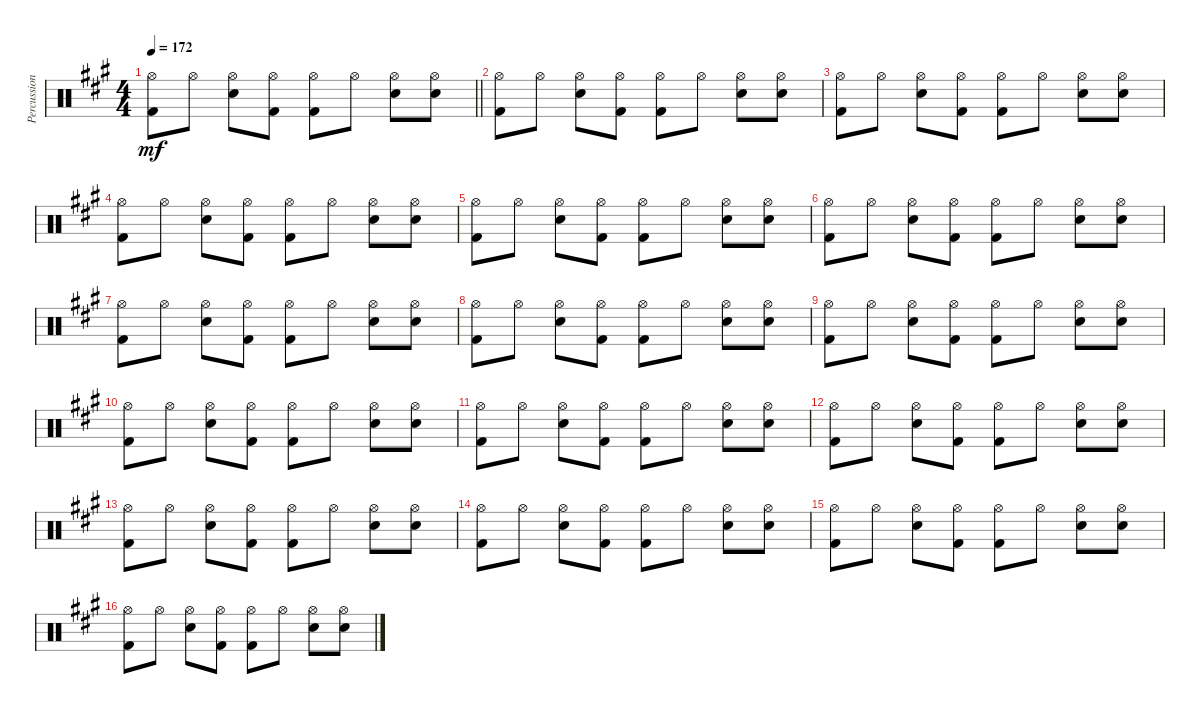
\track ("Percussion" "Percussion") {instrument percussion}
\staff {score}
\articulation defaults
\ts (4 4)
\tempo 172
\clef neutral
\barLineRight lightlight
\ks a
("Hi-Hat (open)" "Kick (hit) 2").8{dy mf} "Hi-Hat (open)".8 ("Hi-Hat (open)" "Snare (hit) 2").8 ("Hi-Hat (open)" "Kick (hit) 2").8 ("Hi-Hat (open)" "Kick (hit) 2").8 "Hi-Hat (open)".8 ("Hi-Hat (open)" "Snare (hit) 2").8 ("Hi-Hat (open)" "Snare (hit) 2").8 |
("Hi-Hat (open)" "Kick (hit) 2").8 "Hi-Hat (open)".8 ("Hi-Hat (open)" "Snare (hit) 2").8 ("Hi-Hat (open)" "Kick (hit) 2").8 ("Hi-Hat (open)" "Kick (hit) 2").8 "Hi-Hat (open)".8 ("Hi-Hat (open)" "Snare (hit) 2").8 ("Hi-Hat (open)" "Snare (hit) 2").8 |
("Hi-Hat (open)" "Kick (hit) 2").8 "Hi-Hat (open)".8 ("Hi-Hat (open)" "Snare (hit) 2").8 ("Hi-Hat (open)" "Kick (hit) 2").8 ("Hi-Hat (open)" "Kick (hit) 2").8 "Hi-Hat (open)".8 ("Hi-Hat (open)" "Snare (hit) 2").8 ("Hi-Hat (open)" "Snare (hit) 2").8 |
("Hi-Hat (open)" "Kick (hit) 2").8 "Hi-Hat (open)".8 ("Hi-Hat (open)" "Snare (hit) 2").8 ("Hi-Hat (open)" "Kick (hit) 2").8 ("Hi-Hat (open)" "Kick (hit) 2").8 "Hi-Hat (open)".8 ("Hi-Hat (open)" "Snare (hit) 2").8 ("Hi-Hat (open)" "Snare (hit) 2").8 |
("Hi-Hat (open)" "Kick (hit) 2").8 "Hi-Hat (open)".8 ("Hi-Hat (open)" "Snare (hit) 2").8 ("Hi-Hat (open)" "Kick (hit) 2").8 ("Hi-Hat (open)" "Kick (hit) 2").8 "Hi-Hat (open)".8 ("Hi-Hat (open)" "Snare (hit) 2").8 ("Hi-Hat (open)" "Snare (hit) 2").8 |
("Hi-Hat (open)" "Kick (hit) 2").8 "Hi-Hat (open)".8 ("Hi-Hat (open)" "Snare (hit) 2").8 ("Hi-Hat (open)" "Kick (hit) 2").8 ("Hi-Hat (open)" "Kick (hit) 2").8 "Hi-Hat (open)".8 ("Hi-Hat (open)" "Snare (hit) 2").8 ("Hi-Hat (open)" "Snare (hit) 2").8 |
("Hi-Hat (open)" "Kick (hit) 2").8 "Hi-Hat (open)".8 ("Hi-Hat (open)" "Snare (hit) 2").8 ("Hi-Hat (open)" "Kick (hit) 2").8 ("Hi-Hat (open)" "Kick (hit) 2").8 "Hi-Hat (open)".8 ("Hi-Hat (open)" "Snare (hit) 2").8 ("Hi-Hat (open)" "Snare (hit) 2").8 |
("Hi-Hat (open)" "Kick (hit) 2").8 "Hi-Hat (open)".8 ("Hi-Hat (open)" "Snare (hit) 2").8 ("Hi-Hat (open)" "Kick (hit) 2").8 ("Hi-Hat (open)" "Kick (hit) 2").8 "Hi-Hat (open)".8 ("Hi-Hat (open)" "Snare (hit) 2").8 ("Hi-Hat (open)" "Snare (hit) 2").8 |
("Hi-Hat (open)" "Kick (hit) 2").8 "Hi-Hat (open)".8 ("Hi-Hat (open)" "Snare (hit) 2").8 ("Hi-Hat (open)" "Kick (hit) 2").8 ("Hi-Hat (open)" "Kick (hit) 2").8 "Hi-Hat (open)".8 ("Hi-Hat (open)" "Snare (hit) 2").8 ("Hi-Hat (open)" "Snare (hit) 2").8 |
("Hi-Hat (open)" "Kick (hit) 2").8 "Hi-Hat (open)".8 ("Hi-Hat (open)" "Snare (hit) 2").8 ("Hi-Hat (open)" "Kick (hit) 2").8 ("Hi-Hat (open)" "Kick (hit) 2").8 "Hi-Hat (open)".8 ("Hi-Hat (open)" "Snare (hit) 2").8 ("Hi-Hat (open)" "Snare (hit) 2").8 |
("Hi-Hat (open)" "Kick (hit) 2").8 "Hi-Hat (open)".8 ("Hi-Hat (open)" "Snare (hit) 2").8 ("Hi-Hat (open)" "Kick (hit) 2").8 ("Hi-Hat (open)" "Kick (hit) 2").8 "Hi-Hat (open)".8 ("Hi-Hat (open)" "Snare (hit) 2").8 ("Hi-Hat (open)" "Snare (hit) 2").8 |
("Hi-Hat (open)" "Kick (hit) 2").8 "Hi-Hat (open)".8 ("Hi-Hat (open)" "Snare (hit) 2").8 ("Hi-Hat (open)" "Kick (hit) 2").8 ("Hi-Hat (open)" "Kick (hit) 2").8 "Hi-Hat (open)".8 ("Hi-Hat (open)" "Snare (hit) 2").8 ("Hi-Hat (open)" "Snare (hit) 2").8 |
("Hi-Hat (open)" "Kick (hit) 2").8 "Hi-Hat (open)".8 ("Hi-Hat (open)" "Snare (hit) 2").8 ("Hi-Hat (open)" "Kick (hit) 2").8 ("Hi-Hat (open)" "Kick (hit) 2").8 "Hi-Hat (open)".8 ("Hi-Hat (open)" "Snare (hit) 2").8 ("Hi-Hat (open)" "Snare (hit) 2").8 |
("Hi-Hat (open)" "Kick (hit) 2").8 "Hi-Hat (open)".8 ("Hi-Hat (open)" "Snare (hit) 2").8 ("Hi-Hat (open)" "Kick (hit) 2").8 ("Hi-Hat (open)" "Kick (hit) 2").8 "Hi-Hat (open)".8 ("Hi-Hat (open)" "Snare (hit) 2").8 ("Hi-Hat (open)" "Snare (hit) 2").8 |
("Hi-Hat (open)" "Kick (hit) 2").8 "Hi-Hat (open)".8 ("Hi-Hat (open)" "Snare (hit) 2").8 ("Hi-Hat (open)" "Kick (hit) 2").8 ("Hi-Hat (open)" "Kick (hit) 2").8 "Hi-Hat (open)".8 ("Hi-Hat (open)" "Snare (hit) 2").8 ("Hi-Hat (open)" "Snare (hit) 2").8 |
("Hi-Hat (open)" "Kick (hit) 2").8 "Hi-Hat (open)".8 ("Hi-Hat (open)" "Snare (hit) 2").8 ("Hi-Hat (open)" "Kick (hit) 2").8 ("Hi-Hat (open)" "Kick (hit) 2").8 "Hi-Hat (open)".8 ("Hi-Hat (open)" "Snare (hit) 2").8 ("Hi-Hat (open)" "Snare (hit) 2").8
